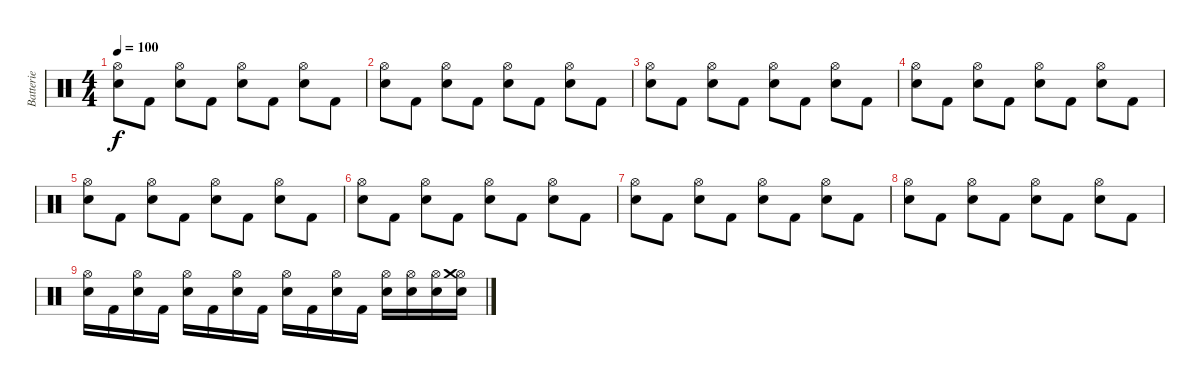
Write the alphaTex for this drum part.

\track ("Batterie" "Batterie") {instrument percussion}
\staff {score}
\articulation defaults
\ts (4 4)
\tempo 100
\clef neutral
\ks c
("Hi-Hat (open)" "Electric Snare (hit)").8{dy f} "Kick (hit) 2".8 ("Hi-Hat (open)" "Electric Snare (hit)").8 "Kick (hit) 2".8 ("Hi-Hat (open)" "Electric Snare (hit)").8 "Kick (hit) 2".8 ("Hi-Hat (open)" "Electric Snare (hit)").8 "Kick (hit) 2".8 |
("Hi-Hat (open)" "Electric Snare (hit)").8 "Kick (hit) 2".8 ("Hi-Hat (open)" "Electric Snare (hit)").8 "Kick (hit) 2".8 ("Hi-Hat (open)" "Electric Snare (hit)").8 "Kick (hit) 2".8 ("Hi-Hat (open)" "Electric Snare (hit)").8 "Kick (hit) 2".8 |
("Hi-Hat (open)" "Electric Snare (hit)").8 "Kick (hit) 2".8 ("Hi-Hat (open)" "Electric Snare (hit)").8 "Kick (hit) 2".8 ("Hi-Hat (open)" "Electric Snare (hit)").8 "Kick (hit) 2".8 ("Hi-Hat (open)" "Electric Snare (hit)").8 "Kick (hit) 2".8 |
("Hi-Hat (open)" "Electric Snare (hit)").8 "Kick (hit) 2".8 ("Hi-Hat (open)" "Electric Snare (hit)").8 "Kick (hit) 2".8 ("Hi-Hat (open)" "Electric Snare (hit)").8 "Kick (hit) 2".8 ("Hi-Hat (open)" "Electric Snare (hit)").8 "Kick (hit) 2".8 |
("Hi-Hat (open)" "Electric Snare (hit)").8 "Kick (hit) 2".8 ("Hi-Hat (open)" "Electric Snare (hit)").8 "Kick (hit) 2".8 ("Hi-Hat (open)" "Electric Snare (hit)").8 "Kick (hit) 2".8 ("Hi-Hat (open)" "Electric Snare (hit)").8 "Kick (hit) 2".8 |
("Hi-Hat (open)" "Electric Snare (hit)").8 "Kick (hit) 2".8 ("Hi-Hat (open)" "Electric Snare (hit)").8 "Kick (hit) 2".8 ("Hi-Hat (open)" "Electric Snare (hit)").8 "Kick (hit) 2".8 ("Hi-Hat (open)" "Electric Snare (hit)").8 "Kick (hit) 2".8 |
("Hi-Hat (open)" "Electric Snare (hit)").8 "Kick (hit) 2".8 ("Hi-Hat (open)" "Electric Snare (hit)").8 "Kick (hit) 2".8 ("Hi-Hat (open)" "Electric Snare (hit)").8 "Kick (hit) 2".8 ("Hi-Hat (open)" "Electric Snare (hit)").8 "Kick (hit) 2".8 |
("Hi-Hat (open)" "Electric Snare (hit)").8 "Kick (hit) 2".8 ("Hi-Hat (open)" "Electric Snare (hit)").8 "Kick (hit) 2".8 ("Hi-Hat (open)" "Electric Snare (hit)").8 "Kick (hit) 2".8 ("Hi-Hat (open)" "Electric Snare (hit)").8 "Kick (hit) 2".8 |
("Hi-Hat (open)" "Electric Snare (hit)").16 "Kick (hit) 2".16 ("Hi-Hat (open)" "Electric Snare (hit)").16 "Kick (hit) 2".16 ("Hi-Hat (open)" "Electric Snare (hit)").16 "Kick (hit) 2".16 ("Hi-Hat (open)" "Electric Snare (hit)").16 "Kick (hit) 2".16 ("Hi-Hat (open)" "Electric Snare (hit)").16 "Kick (hit) 2".16 ("Hi-Hat (open)" "Electric Snare (hit)").16 "Kick (hit) 2".16 ("Electric Snare (hit)" "Hi-Hat (open)").16 ("Electric Snare (hit)" "Hi-Hat (open)").16 ("Electric Snare (hit)" "Hi-Hat (open)").16 ("Electric Snare (hit)" "Hi-Hat (open)" "Crash medium (hit)").16
